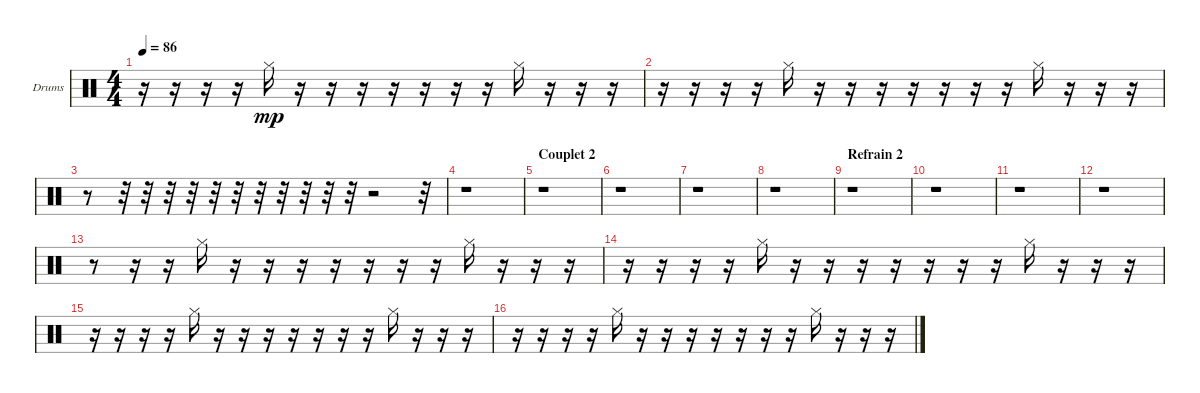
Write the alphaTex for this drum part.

\bracketExtendMode groupsimilarinstruments
\firstSystemTrackNameOrientation horizontal
\otherSystemsTrackNameOrientation horizontal
\track ("Drumkit" "Drums") {instrument percussion}
\staff {score}
\articulation defaults
\ts (4 4)
\tempo 86
\clef neutral
\ks c
r.16{dy mp} r.16 r.16 r.16 "Hi-Hat (closed)".16 r.16 r.16 r.16 r.16 r.16 r.16 r.16 "Hi-Hat (closed)".16 r.16 r.16 r.16 |
r.16 r.16 r.16 r.16 "Hi-Hat (closed)".16 r.16 r.16 r.16 r.16 r.16 r.16 r.16 "Hi-Hat (closed)".16 r.16 r.16 r.16 |
r.8 r.32 r.32 r.32 r.32 r.32 r.32 r.32 r.32 r.32 r.32 r.32 r.2 r.32 |
r.1 |
\section ("" "Couplet 2")
r.1 |
r.1 |
r.1 |
r.1 |
\section ("" "Refrain 2")
r.1 |
r.1 |
r.1 |
r.1 |
r.8 r.16 r.16 "Hi-Hat (closed)".16 r.16 r.16 r.16 r.16 r.16 r.16 r.16 "Hi-Hat (closed)".16 r.16 r.16 r.16 |
r.16 r.16 r.16 r.16 "Hi-Hat (closed)".16 r.16 r.16 r.16 r.16 r.16 r.16 r.16 "Hi-Hat (closed)".16 r.16 r.16 r.16 |
r.16 r.16 r.16 r.16 "Hi-Hat (closed)".16 r.16 r.16 r.16 r.16 r.16 r.16 r.16 "Hi-Hat (closed)".16 r.16 r.16 r.16 |
r.16 r.16 r.16 r.16 "Hi-Hat (closed)".16 r.16 r.16 r.16 r.16 r.16 r.16 r.16 "Hi-Hat (closed)".16 r.16 r.16 r.16
